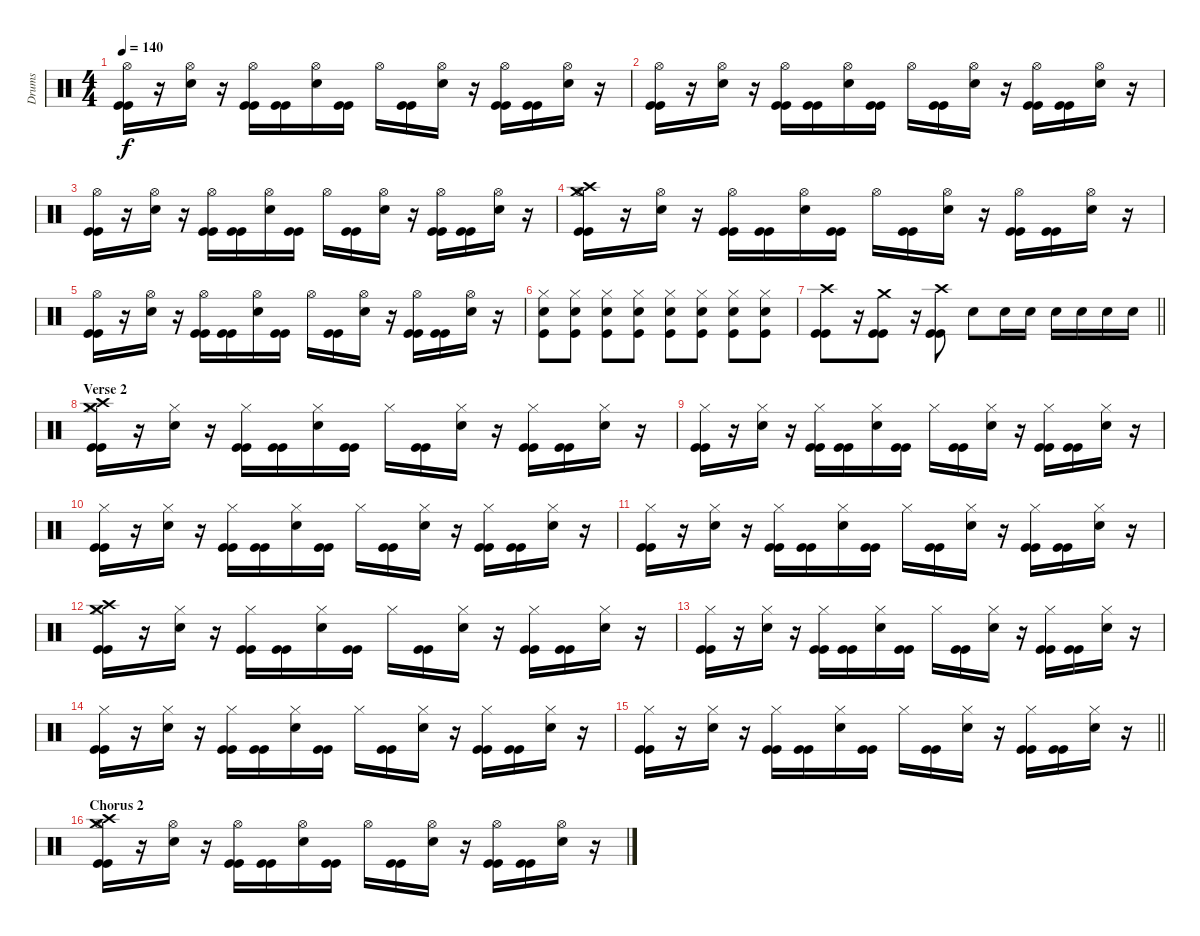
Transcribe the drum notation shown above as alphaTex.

\track ("Drums" "Drums") {instrument percussion}
\staff {score}
\articulation defaults
\ts (4 4)
\tempo 140
\clef neutral
\ks c
("Hi-Hat (open)" "Kick (hit)" "Kick (hit)").16{dy f} r.16 ("Hi-Hat (open)" "Snare (hit) 2").16 r.16 ("Hi-Hat (open)" "Kick (hit)" "Kick (hit)").16 ("Kick (hit)" "Kick (hit)").16 ("Hi-Hat (open)" "Snare (hit) 2").16 ("Kick (hit)" "Kick (hit)").16 "Hi-Hat (open)".16 ("Kick (hit)" "Kick (hit)").16 ("Hi-Hat (open)" "Snare (hit) 2").16 r.16 ("Hi-Hat (open)" "Kick (hit)" "Kick (hit)").16 ("Kick (hit)" "Kick (hit)").16 ("Hi-Hat (open)" "Snare (hit) 2").16 r.16 |
("Hi-Hat (open)" "Kick (hit)" "Kick (hit)").16 r.16 ("Hi-Hat (open)" "Snare (hit) 2").16 r.16 ("Hi-Hat (open)" "Kick (hit)" "Kick (hit)").16 ("Kick (hit)" "Kick (hit)").16 ("Hi-Hat (open)" "Snare (hit) 2").16 ("Kick (hit)" "Kick (hit)").16 "Hi-Hat (open)".16 ("Kick (hit)" "Kick (hit)").16 ("Hi-Hat (open)" "Snare (hit) 2").16 r.16 ("Hi-Hat (open)" "Kick (hit)" "Kick (hit)").16 ("Kick (hit)" "Kick (hit)").16 ("Hi-Hat (open)" "Snare (hit) 2").16 r.16 |
("Hi-Hat (open)" "Kick (hit)" "Kick (hit)").16 r.16 ("Hi-Hat (open)" "Snare (hit) 2").16 r.16 ("Hi-Hat (open)" "Kick (hit)" "Kick (hit)").16 ("Kick (hit)" "Kick (hit)").16 ("Hi-Hat (open)" "Snare (hit) 2").16 ("Kick (hit)" "Kick (hit)").16 "Hi-Hat (open)".16 ("Kick (hit)" "Kick (hit)").16 ("Hi-Hat (open)" "Snare (hit) 2").16 r.16 ("Hi-Hat (open)" "Kick (hit)" "Kick (hit)").16 ("Kick (hit)" "Kick (hit)").16 ("Hi-Hat (open)" "Snare (hit) 2").16 r.16 |
("Crash medium (hit)" "Crash high (hit)" "Hi-Hat (open)" "Kick (hit)" "Kick (hit)").16 r.16 ("Hi-Hat (open)" "Snare (hit) 2").16 r.16 ("Hi-Hat (open)" "Kick (hit)" "Kick (hit)").16 ("Kick (hit)" "Kick (hit)").16 ("Hi-Hat (open)" "Snare (hit) 2").16 ("Kick (hit)" "Kick (hit)").16 "Hi-Hat (open)".16 ("Kick (hit)" "Kick (hit)").16 ("Hi-Hat (open)" "Snare (hit) 2").16 r.16 ("Hi-Hat (open)" "Kick (hit)" "Kick (hit)").16 ("Kick (hit)" "Kick (hit)").16 ("Hi-Hat (open)" "Snare (hit) 2").16 r.16 |
("Hi-Hat (open)" "Kick (hit)" "Kick (hit)").16 r.16 ("Hi-Hat (open)" "Snare (hit) 2").16 r.16 ("Hi-Hat (open)" "Kick (hit)" "Kick (hit)").16 ("Kick (hit)" "Kick (hit)").16 ("Hi-Hat (open)" "Snare (hit) 2").16 ("Kick (hit)" "Kick (hit)").16 "Hi-Hat (open)".16 ("Kick (hit)" "Kick (hit)").16 ("Hi-Hat (open)" "Snare (hit) 2").16 r.16 ("Hi-Hat (open)" "Kick (hit)" "Kick (hit)").16 ("Kick (hit)" "Kick (hit)").16 ("Hi-Hat (open)" "Snare (hit) 2").16 r.16 |
("Hi-Hat (closed)" "Snare (hit) 2" "Kick (hit)").8 ("Hi-Hat (closed)" "Snare (hit) 2" "Kick (hit)").8 ("Hi-Hat (closed)" "Snare (hit) 2" "Kick (hit)").8 ("Hi-Hat (closed)" "Snare (hit) 2" "Kick (hit)").8 ("Hi-Hat (closed)" "Snare (hit) 2" "Kick (hit)").8 ("Hi-Hat (closed)" "Snare (hit) 2" "Kick (hit)").8 ("Hi-Hat (closed)" "Snare (hit) 2" "Kick (hit)").8 ("Hi-Hat (closed)" "Snare (hit) 2" "Kick (hit)").8 |
\barLineRight lightlight
("Crash high (hit)" "Kick (hit)" "Kick (hit)").8 r.16 ("Crash medium (hit)" "Kick (hit)" "Kick (hit)").8 r.16 ("Crash high (hit)" "Kick (hit)" "Kick (hit)").8 "Snare (hit) 2".8 "Snare (hit) 2".16 "Snare (hit) 2".16 "Snare (hit) 2".16 "Snare (hit) 2".16 "Snare (hit) 2".16 "Snare (hit) 2".16 |
\section ("" "Verse 2")
("Crash medium (hit)" "Crash high (hit)" "Hi-Hat (closed)" "Kick (hit)" "Kick (hit)").16 r.16 ("Hi-Hat (closed)" "Snare (hit) 2").16 r.16 ("Hi-Hat (closed)" "Kick (hit)" "Kick (hit)").16 ("Kick (hit)" "Kick (hit)").16 ("Hi-Hat (closed)" "Snare (hit) 2").16 ("Kick (hit)" "Kick (hit)").16 "Hi-Hat (closed)".16 ("Kick (hit)" "Kick (hit)").16 ("Hi-Hat (closed)" "Snare (hit) 2").16 r.16 ("Hi-Hat (closed)" "Kick (hit)" "Kick (hit)").16 ("Kick (hit)" "Kick (hit)").16 ("Hi-Hat (closed)" "Snare (hit) 2").16 r.16 |
("Hi-Hat (closed)" "Kick (hit)" "Kick (hit)").16 r.16 ("Hi-Hat (closed)" "Snare (hit) 2").16 r.16 ("Hi-Hat (closed)" "Kick (hit)" "Kick (hit)").16 ("Kick (hit)" "Kick (hit)").16 ("Hi-Hat (closed)" "Snare (hit) 2").16 ("Kick (hit)" "Kick (hit)").16 "Hi-Hat (closed)".16 ("Kick (hit)" "Kick (hit)").16 ("Hi-Hat (closed)" "Snare (hit) 2").16 r.16 ("Hi-Hat (closed)" "Kick (hit)" "Kick (hit)").16 ("Kick (hit)" "Kick (hit)").16 ("Hi-Hat (closed)" "Snare (hit) 2").16 r.16 |
("Hi-Hat (closed)" "Kick (hit)" "Kick (hit)").16 r.16 ("Hi-Hat (closed)" "Snare (hit) 2").16 r.16 ("Hi-Hat (closed)" "Kick (hit)" "Kick (hit)").16 ("Kick (hit)" "Kick (hit)").16 ("Hi-Hat (closed)" "Snare (hit) 2").16 ("Kick (hit)" "Kick (hit)").16 "Hi-Hat (closed)".16 ("Kick (hit)" "Kick (hit)").16 ("Hi-Hat (closed)" "Snare (hit) 2").16 r.16 ("Hi-Hat (closed)" "Kick (hit)" "Kick (hit)").16 ("Kick (hit)" "Kick (hit)").16 ("Hi-Hat (closed)" "Snare (hit) 2").16 r.16 |
("Hi-Hat (closed)" "Kick (hit)" "Kick (hit)").16 r.16 ("Hi-Hat (closed)" "Snare (hit) 2").16 r.16 ("Hi-Hat (closed)" "Kick (hit)" "Kick (hit)").16 ("Kick (hit)" "Kick (hit)").16 ("Hi-Hat (closed)" "Snare (hit) 2").16 ("Kick (hit)" "Kick (hit)").16 "Hi-Hat (closed)".16 ("Kick (hit)" "Kick (hit)").16 ("Hi-Hat (closed)" "Snare (hit) 2").16 r.16 ("Hi-Hat (closed)" "Kick (hit)" "Kick (hit)").16 ("Kick (hit)" "Kick (hit)").16 ("Hi-Hat (closed)" "Snare (hit) 2").16 r.16 |
("Crash medium (hit)" "Crash high (hit)" "Hi-Hat (closed)" "Kick (hit)" "Kick (hit)").16 r.16 ("Hi-Hat (closed)" "Snare (hit) 2").16 r.16 ("Hi-Hat (closed)" "Kick (hit)" "Kick (hit)").16 ("Kick (hit)" "Kick (hit)").16 ("Hi-Hat (closed)" "Snare (hit) 2").16 ("Kick (hit)" "Kick (hit)").16 "Hi-Hat (closed)".16 ("Kick (hit)" "Kick (hit)").16 ("Hi-Hat (closed)" "Snare (hit) 2").16 r.16 ("Hi-Hat (closed)" "Kick (hit)" "Kick (hit)").16 ("Kick (hit)" "Kick (hit)").16 ("Hi-Hat (closed)" "Snare (hit) 2").16 r.16 |
("Hi-Hat (closed)" "Kick (hit)" "Kick (hit)").16 r.16 ("Hi-Hat (closed)" "Snare (hit) 2").16 r.16 ("Hi-Hat (closed)" "Kick (hit)" "Kick (hit)").16 ("Kick (hit)" "Kick (hit)").16 ("Hi-Hat (closed)" "Snare (hit) 2").16 ("Kick (hit)" "Kick (hit)").16 "Hi-Hat (closed)".16 ("Kick (hit)" "Kick (hit)").16 ("Hi-Hat (closed)" "Snare (hit) 2").16 r.16 ("Hi-Hat (closed)" "Kick (hit)" "Kick (hit)").16 ("Kick (hit)" "Kick (hit)").16 ("Hi-Hat (closed)" "Snare (hit) 2").16 r.16 |
("Hi-Hat (closed)" "Kick (hit)" "Kick (hit)").16 r.16 ("Hi-Hat (closed)" "Snare (hit) 2").16 r.16 ("Hi-Hat (closed)" "Kick (hit)" "Kick (hit)").16 ("Kick (hit)" "Kick (hit)").16 ("Hi-Hat (closed)" "Snare (hit) 2").16 ("Kick (hit)" "Kick (hit)").16 "Hi-Hat (closed)".16 ("Kick (hit)" "Kick (hit)").16 ("Hi-Hat (closed)" "Snare (hit) 2").16 r.16 ("Hi-Hat (closed)" "Kick (hit)" "Kick (hit)").16 ("Kick (hit)" "Kick (hit)").16 ("Hi-Hat (closed)" "Snare (hit) 2").16 r.16 |
\barLineRight lightlight
("Hi-Hat (closed)" "Kick (hit)" "Kick (hit)").16 r.16 ("Hi-Hat (closed)" "Snare (hit) 2").16 r.16 ("Hi-Hat (closed)" "Kick (hit)" "Kick (hit)").16 ("Kick (hit)" "Kick (hit)").16 ("Hi-Hat (closed)" "Snare (hit) 2").16 ("Kick (hit)" "Kick (hit)").16 "Hi-Hat (closed)".16 ("Kick (hit)" "Kick (hit)").16 ("Hi-Hat (closed)" "Snare (hit) 2").16 r.16 ("Hi-Hat (closed)" "Kick (hit)" "Kick (hit)").16 ("Kick (hit)" "Kick (hit)").16 ("Hi-Hat (closed)" "Snare (hit) 2").16 r.16 |
\section ("" "Chorus 2")
("Crash medium (hit)" "Crash high (hit)" "Hi-Hat (open)" "Kick (hit)" "Kick (hit)").16 r.16 ("Hi-Hat (open)" "Snare (hit) 2").16 r.16 ("Hi-Hat (open)" "Kick (hit)" "Kick (hit)").16 ("Kick (hit)" "Kick (hit)").16 ("Hi-Hat (open)" "Snare (hit) 2").16 ("Kick (hit)" "Kick (hit)").16 "Hi-Hat (open)".16 ("Kick (hit)" "Kick (hit)").16 ("Hi-Hat (open)" "Snare (hit) 2").16 r.16 ("Hi-Hat (open)" "Kick (hit)" "Kick (hit)").16 ("Kick (hit)" "Kick (hit)").16 ("Hi-Hat (open)" "Snare (hit) 2").16 r.16
